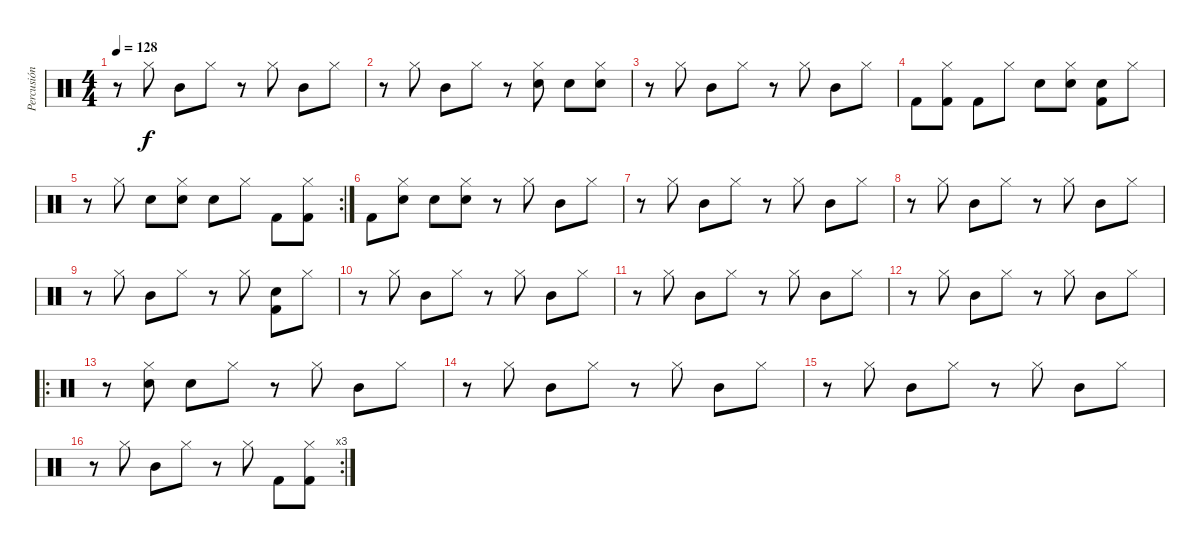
\track ("Percusión" "Percusión") {instrument percussion}
\staff {score}
\articulation defaults
\ts (4 4)
\tempo 128
\clef neutral
\ks c
r.8{dy f} "Hi-Hat (closed)".8 "Mid Tom (hit)".8 "Hi-Hat (closed)".8 r.8 "Hi-Hat (closed)".8 "Mid Tom (hit)".8 "Hi-Hat (closed)".8 |
r.8 "Hi-Hat (closed)".8 "Mid Tom (hit)".8 "Hi-Hat (closed)".8 r.8 ("Hi-Hat (closed)" "Electric Snare (hit)").8 "Electric Snare (hit)".8 ("Hi-Hat (closed)" "Electric Snare (hit)").8 |
r.8 "Hi-Hat (closed)".8 "Mid Tom (hit)".8 "Hi-Hat (closed)".8 r.8 "Hi-Hat (closed)".8 "Mid Tom (hit)".8 "Hi-Hat (closed)".8 |
"Kick (hit) 2".8 ("Hi-Hat (closed)" "Kick (hit) 2").8 "Kick (hit) 2".8 "Hi-Hat (closed)".8 "Electric Snare (hit)".8 ("Hi-Hat (closed)" "Electric Snare (hit)").8 ("Electric Snare (hit)" "Kick (hit) 2").8 "Hi-Hat (closed)".8 |
\rc 2
r.8 "Hi-Hat (closed)".8 "Electric Snare (hit)".8 ("Hi-Hat (closed)" "Electric Snare (hit)").8 "Electric Snare (hit)".8 "Hi-Hat (closed)".8 "Kick (hit) 2".8 ("Hi-Hat (closed)" "Kick (hit) 2").8 |
"Kick (hit) 2".8 ("Hi-Hat (closed)" "Electric Snare (hit)").8 "Electric Snare (hit)".8 ("Hi-Hat (closed)" "Electric Snare (hit)").8 r.8 "Hi-Hat (closed)".8 "Mid Tom (hit)".8 "Hi-Hat (closed)".8 |
r.8 "Hi-Hat (closed)".8 "Mid Tom (hit)".8 "Hi-Hat (closed)".8 r.8 "Hi-Hat (closed)".8 "Mid Tom (hit)".8 "Hi-Hat (closed)".8 |
r.8 "Hi-Hat (closed)".8 "Mid Tom (hit)".8 "Hi-Hat (closed)".8 r.8 "Hi-Hat (closed)".8 "Mid Tom (hit)".8 "Hi-Hat (closed)".8 |
r.8 "Hi-Hat (closed)".8 "Mid Tom (hit)".8 "Hi-Hat (closed)".8 r.8 "Hi-Hat (closed)".8 ("Kick (hit) 2" "Electric Snare (hit)").8 "Hi-Hat (closed)".8 |
r.8 "Hi-Hat (closed)".8 "Mid Tom (hit)".8 "Hi-Hat (closed)".8 r.8 "Hi-Hat (closed)".8 "Mid Tom (hit)".8 "Hi-Hat (closed)".8 |
r.8 "Hi-Hat (closed)".8 "Mid Tom (hit)".8 "Hi-Hat (closed)".8 r.8 "Hi-Hat (closed)".8 "Mid Tom (hit)".8 "Hi-Hat (closed)".8 |
r.8 "Hi-Hat (closed)".8 "Mid Tom (hit)".8 "Hi-Hat (closed)".8 r.8 "Hi-Hat (closed)".8 "Mid Tom (hit)".8 "Hi-Hat (closed)".8 |
\ro
r.8 ("Hi-Hat (closed)" "Electric Snare (hit)").8 "Electric Snare (hit)".8 "Hi-Hat (closed)".8 r.8 "Hi-Hat (closed)".8 "Mid Tom (hit)".8 "Hi-Hat (closed)".8 |
r.8 "Hi-Hat (closed)".8 "Mid Tom (hit)".8 "Hi-Hat (closed)".8 r.8 "Hi-Hat (closed)".8 "Mid Tom (hit)".8 "Hi-Hat (closed)".8 |
r.8 "Hi-Hat (closed)".8 "Mid Tom (hit)".8 "Hi-Hat (closed)".8 r.8 "Hi-Hat (closed)".8 "Mid Tom (hit)".8 "Hi-Hat (closed)".8 |
\rc 3
r.8 "Hi-Hat (closed)".8 "Mid Tom (hit)".8 "Hi-Hat (closed)".8 r.8 "Hi-Hat (closed)".8 "Kick (hit) 2".8 ("Hi-Hat (closed)" "Kick (hit) 2").8
